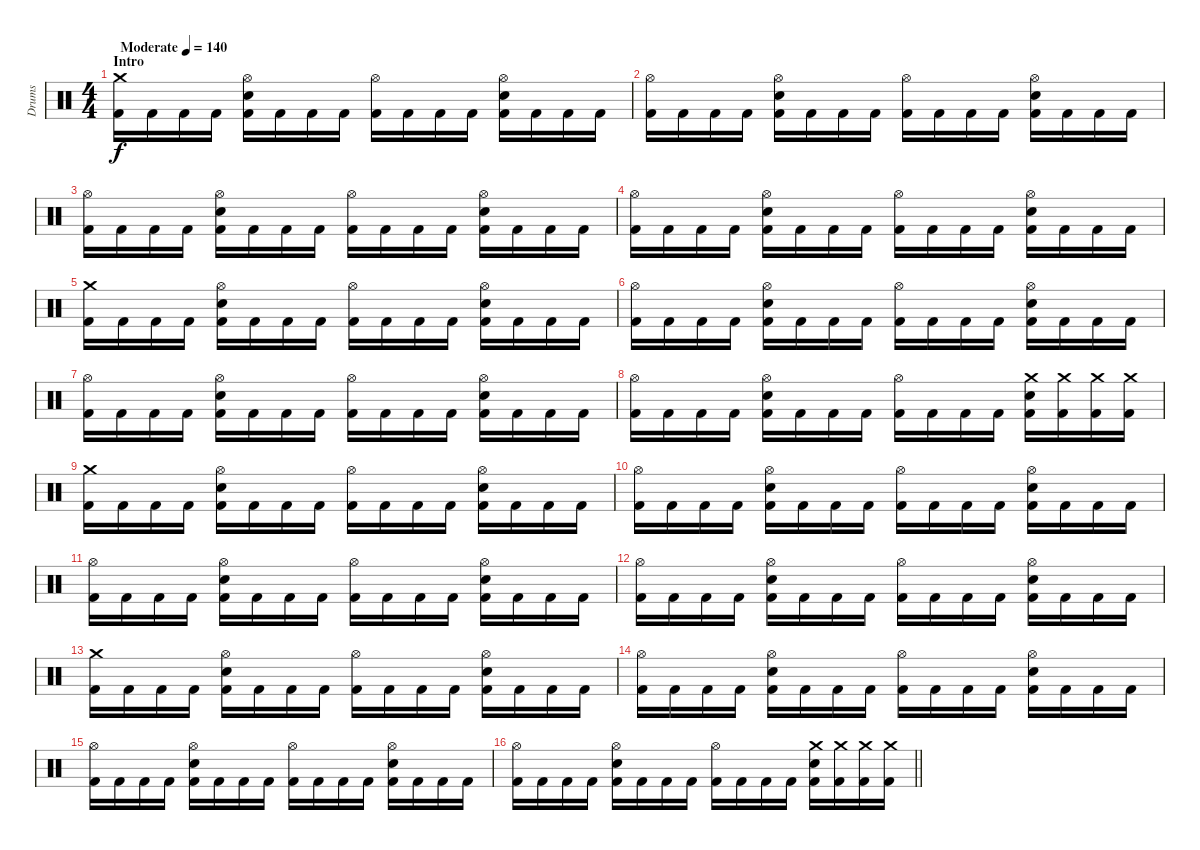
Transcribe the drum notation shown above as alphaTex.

\track ("Drums " "Drums ") {instrument percussion}
\staff {score}
\articulation defaults
\ts (4 4)
\section ("" "Intro ")
\tempo (140 "Moderate")
\clef neutral
\ks c
("Kick (hit) 2" "Crash medium (hit)").16{dy f} "Kick (hit) 2".16 "Kick (hit) 2".16 "Kick (hit) 2".16 ("Kick (hit) 2" "Electric Snare (hit)" "Hi-Hat (open)").16 "Kick (hit) 2".16 "Kick (hit) 2".16 "Kick (hit) 2".16 ("Kick (hit) 2" "Hi-Hat (open)").16 "Kick (hit) 2".16 "Kick (hit) 2".16 "Kick (hit) 2".16 ("Kick (hit) 2" "Electric Snare (hit)" "Hi-Hat (open)").16 "Kick (hit) 2".16 "Kick (hit) 2".16 "Kick (hit) 2".16 |
("Kick (hit) 2" "Hi-Hat (open)").16 "Kick (hit) 2".16 "Kick (hit) 2".16 "Kick (hit) 2".16 ("Kick (hit) 2" "Electric Snare (hit)" "Hi-Hat (open)").16 "Kick (hit) 2".16 "Kick (hit) 2".16 "Kick (hit) 2".16 ("Kick (hit) 2" "Hi-Hat (open)").16 "Kick (hit) 2".16 "Kick (hit) 2".16 "Kick (hit) 2".16 ("Kick (hit) 2" "Electric Snare (hit)" "Hi-Hat (open)").16 "Kick (hit) 2".16 "Kick (hit) 2".16 "Kick (hit) 2".16 |
("Kick (hit) 2" "Hi-Hat (open)").16 "Kick (hit) 2".16 "Kick (hit) 2".16 "Kick (hit) 2".16 ("Kick (hit) 2" "Electric Snare (hit)" "Hi-Hat (open)").16 "Kick (hit) 2".16 "Kick (hit) 2".16 "Kick (hit) 2".16 ("Kick (hit) 2" "Hi-Hat (open)").16 "Kick (hit) 2".16 "Kick (hit) 2".16 "Kick (hit) 2".16 ("Kick (hit) 2" "Electric Snare (hit)" "Hi-Hat (open)").16 "Kick (hit) 2".16 "Kick (hit) 2".16 "Kick (hit) 2".16 |
("Kick (hit) 2" "Hi-Hat (open)").16 "Kick (hit) 2".16 "Kick (hit) 2".16 "Kick (hit) 2".16 ("Kick (hit) 2" "Electric Snare (hit)" "Hi-Hat (open)").16 "Kick (hit) 2".16 "Kick (hit) 2".16 "Kick (hit) 2".16 ("Kick (hit) 2" "Hi-Hat (open)").16 "Kick (hit) 2".16 "Kick (hit) 2".16 "Kick (hit) 2".16 ("Kick (hit) 2" "Electric Snare (hit)" "Hi-Hat (open)").16 "Kick (hit) 2".16 "Kick (hit) 2".16 "Kick (hit) 2".16 |
("Kick (hit) 2" "Crash medium (hit)").16 "Kick (hit) 2".16 "Kick (hit) 2".16 "Kick (hit) 2".16 ("Kick (hit) 2" "Electric Snare (hit)" "Hi-Hat (open)").16 "Kick (hit) 2".16 "Kick (hit) 2".16 "Kick (hit) 2".16 ("Kick (hit) 2" "Hi-Hat (open)").16 "Kick (hit) 2".16 "Kick (hit) 2".16 "Kick (hit) 2".16 ("Kick (hit) 2" "Electric Snare (hit)" "Hi-Hat (open)").16 "Kick (hit) 2".16 "Kick (hit) 2".16 "Kick (hit) 2".16 |
("Kick (hit) 2" "Hi-Hat (open)").16 "Kick (hit) 2".16 "Kick (hit) 2".16 "Kick (hit) 2".16 ("Kick (hit) 2" "Electric Snare (hit)" "Hi-Hat (open)").16 "Kick (hit) 2".16 "Kick (hit) 2".16 "Kick (hit) 2".16 ("Kick (hit) 2" "Hi-Hat (open)").16 "Kick (hit) 2".16 "Kick (hit) 2".16 "Kick (hit) 2".16 ("Kick (hit) 2" "Electric Snare (hit)" "Hi-Hat (open)").16 "Kick (hit) 2".16 "Kick (hit) 2".16 "Kick (hit) 2".16 |
("Kick (hit) 2" "Hi-Hat (open)").16 "Kick (hit) 2".16 "Kick (hit) 2".16 "Kick (hit) 2".16 ("Kick (hit) 2" "Electric Snare (hit)" "Hi-Hat (open)").16 "Kick (hit) 2".16 "Kick (hit) 2".16 "Kick (hit) 2".16 ("Kick (hit) 2" "Hi-Hat (open)").16 "Kick (hit) 2".16 "Kick (hit) 2".16 "Kick (hit) 2".16 ("Kick (hit) 2" "Electric Snare (hit)" "Hi-Hat (open)").16 "Kick (hit) 2".16 "Kick (hit) 2".16 "Kick (hit) 2".16 |
("Kick (hit) 2" "Hi-Hat (open)").16 "Kick (hit) 2".16 "Kick (hit) 2".16 "Kick (hit) 2".16 ("Kick (hit) 2" "Electric Snare (hit)" "Hi-Hat (open)").16 "Kick (hit) 2".16 "Kick (hit) 2".16 "Kick (hit) 2".16 ("Kick (hit) 2" "Hi-Hat (open)").16 "Kick (hit) 2".16 "Kick (hit) 2".16 "Kick (hit) 2".16 ("Kick (hit) 2" "Electric Snare (hit)" "Crash medium (hit)").16 ("Kick (hit) 2" "Crash medium (hit)").16 ("Kick (hit) 2" "Crash medium (hit)").16 ("Kick (hit) 2" "Crash medium (hit)").16 |
("Kick (hit) 2" "Crash medium (hit)").16 "Kick (hit) 2".16 "Kick (hit) 2".16 "Kick (hit) 2".16 ("Kick (hit) 2" "Electric Snare (hit)" "Hi-Hat (open)").16 "Kick (hit) 2".16 "Kick (hit) 2".16 "Kick (hit) 2".16 ("Kick (hit) 2" "Hi-Hat (open)").16 "Kick (hit) 2".16 "Kick (hit) 2".16 "Kick (hit) 2".16 ("Kick (hit) 2" "Electric Snare (hit)" "Hi-Hat (open)").16 "Kick (hit) 2".16 "Kick (hit) 2".16 "Kick (hit) 2".16 |
("Kick (hit) 2" "Hi-Hat (open)").16 "Kick (hit) 2".16 "Kick (hit) 2".16 "Kick (hit) 2".16 ("Kick (hit) 2" "Electric Snare (hit)" "Hi-Hat (open)").16 "Kick (hit) 2".16 "Kick (hit) 2".16 "Kick (hit) 2".16 ("Kick (hit) 2" "Hi-Hat (open)").16 "Kick (hit) 2".16 "Kick (hit) 2".16 "Kick (hit) 2".16 ("Kick (hit) 2" "Electric Snare (hit)" "Hi-Hat (open)").16 "Kick (hit) 2".16 "Kick (hit) 2".16 "Kick (hit) 2".16 |
("Kick (hit) 2" "Hi-Hat (open)").16 "Kick (hit) 2".16 "Kick (hit) 2".16 "Kick (hit) 2".16 ("Kick (hit) 2" "Electric Snare (hit)" "Hi-Hat (open)").16 "Kick (hit) 2".16 "Kick (hit) 2".16 "Kick (hit) 2".16 ("Kick (hit) 2" "Hi-Hat (open)").16 "Kick (hit) 2".16 "Kick (hit) 2".16 "Kick (hit) 2".16 ("Kick (hit) 2" "Electric Snare (hit)" "Hi-Hat (open)").16 "Kick (hit) 2".16 "Kick (hit) 2".16 "Kick (hit) 2".16 |
("Kick (hit) 2" "Hi-Hat (open)").16 "Kick (hit) 2".16 "Kick (hit) 2".16 "Kick (hit) 2".16 ("Kick (hit) 2" "Electric Snare (hit)" "Hi-Hat (open)").16 "Kick (hit) 2".16 "Kick (hit) 2".16 "Kick (hit) 2".16 ("Kick (hit) 2" "Hi-Hat (open)").16 "Kick (hit) 2".16 "Kick (hit) 2".16 "Kick (hit) 2".16 ("Kick (hit) 2" "Electric Snare (hit)" "Hi-Hat (open)").16 "Kick (hit) 2".16 "Kick (hit) 2".16 "Kick (hit) 2".16 |
("Kick (hit) 2" "Crash medium (hit)").16 "Kick (hit) 2".16 "Kick (hit) 2".16 "Kick (hit) 2".16 ("Kick (hit) 2" "Electric Snare (hit)" "Hi-Hat (open)").16 "Kick (hit) 2".16 "Kick (hit) 2".16 "Kick (hit) 2".16 ("Kick (hit) 2" "Hi-Hat (open)").16 "Kick (hit) 2".16 "Kick (hit) 2".16 "Kick (hit) 2".16 ("Kick (hit) 2" "Electric Snare (hit)" "Hi-Hat (open)").16 "Kick (hit) 2".16 "Kick (hit) 2".16 "Kick (hit) 2".16 |
("Kick (hit) 2" "Hi-Hat (open)").16 "Kick (hit) 2".16 "Kick (hit) 2".16 "Kick (hit) 2".16 ("Kick (hit) 2" "Electric Snare (hit)" "Hi-Hat (open)").16 "Kick (hit) 2".16 "Kick (hit) 2".16 "Kick (hit) 2".16 ("Kick (hit) 2" "Hi-Hat (open)").16 "Kick (hit) 2".16 "Kick (hit) 2".16 "Kick (hit) 2".16 ("Kick (hit) 2" "Electric Snare (hit)" "Hi-Hat (open)").16 "Kick (hit) 2".16 "Kick (hit) 2".16 "Kick (hit) 2".16 |
("Kick (hit) 2" "Hi-Hat (open)").16 "Kick (hit) 2".16 "Kick (hit) 2".16 "Kick (hit) 2".16 ("Kick (hit) 2" "Electric Snare (hit)" "Hi-Hat (open)").16 "Kick (hit) 2".16 "Kick (hit) 2".16 "Kick (hit) 2".16 ("Kick (hit) 2" "Hi-Hat (open)").16 "Kick (hit) 2".16 "Kick (hit) 2".16 "Kick (hit) 2".16 ("Kick (hit) 2" "Electric Snare (hit)" "Hi-Hat (open)").16 "Kick (hit) 2".16 "Kick (hit) 2".16 "Kick (hit) 2".16 |
\barLineRight lightlight
("Kick (hit) 2" "Hi-Hat (open)").16 "Kick (hit) 2".16 "Kick (hit) 2".16 "Kick (hit) 2".16 ("Kick (hit) 2" "Electric Snare (hit)" "Hi-Hat (open)").16 "Kick (hit) 2".16 "Kick (hit) 2".16 "Kick (hit) 2".16 ("Kick (hit) 2" "Hi-Hat (open)").16 "Kick (hit) 2".16 "Kick (hit) 2".16 "Kick (hit) 2".16 ("Kick (hit) 2" "Electric Snare (hit)" "Crash medium (hit)").16 ("Kick (hit) 2" "Crash medium (hit)").16 ("Kick (hit) 2" "Crash medium (hit)").16 ("Kick (hit) 2" "Crash medium (hit)").16
